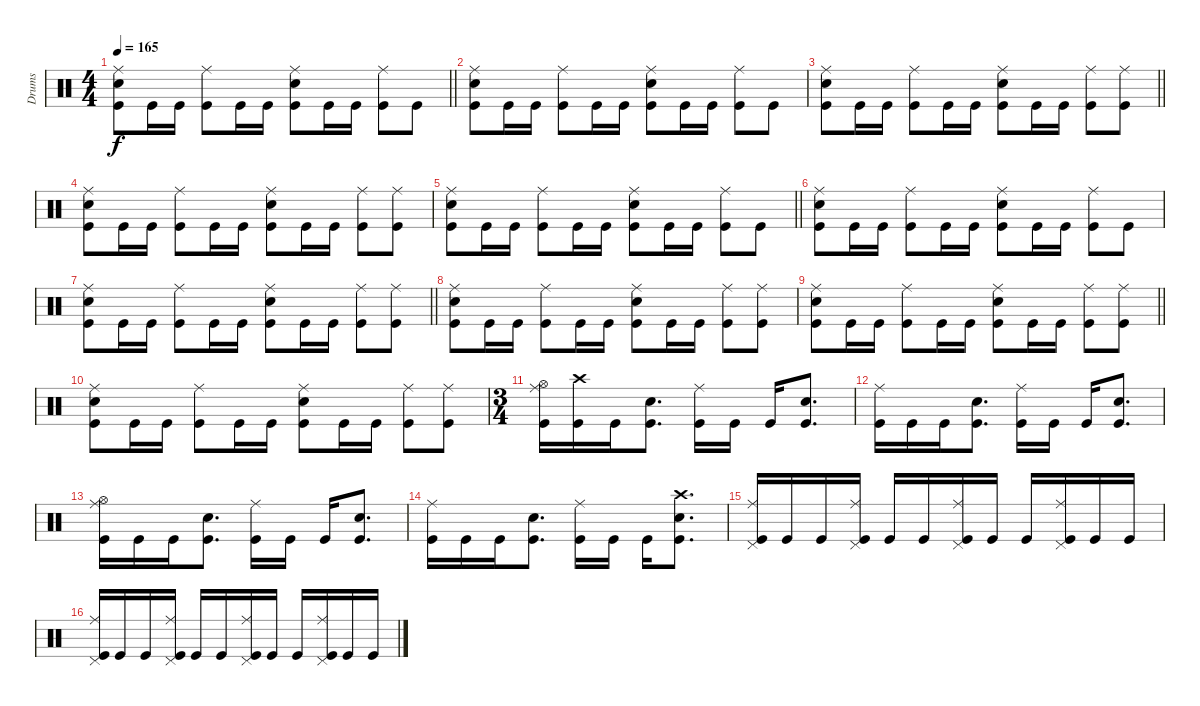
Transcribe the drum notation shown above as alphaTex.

\track ("Drums" "Drums") {instrument percussion}
\staff {score}
\articulation defaults
\ts (4 4)
\tempo 165
\clef neutral
\barLineRight lightlight
\ks c
("Ride (middle)" "Snare (hit) 2" "Kick (hit)").8{dy f} "Kick (hit)".16 "Kick (hit)".16 ("Ride (middle)" "Kick (hit)").8 "Kick (hit)".16 "Kick (hit)".16 ("Ride (middle)" "Snare (hit) 2" "Kick (hit)").8 "Kick (hit)".16 "Kick (hit)".16 ("Ride (middle)" "Kick (hit)").8 "Kick (hit)".8 |
("Ride (middle)" "Snare (hit) 2" "Kick (hit)").8 "Kick (hit)".16 "Kick (hit)".16 ("Ride (middle)" "Kick (hit)").8 "Kick (hit)".16 "Kick (hit)".16 ("Ride (middle)" "Snare (hit) 2" "Kick (hit)").8 "Kick (hit)".16 "Kick (hit)".16 ("Ride (middle)" "Kick (hit)").8 "Kick (hit)".8 |
\barLineRight lightlight
("Ride (middle)" "Snare (hit) 2" "Kick (hit)").8 "Kick (hit)".16 "Kick (hit)".16 ("Ride (middle)" "Kick (hit)").8 "Kick (hit)".16 "Kick (hit)".16 ("Ride (middle)" "Snare (hit) 2" "Kick (hit)").8 "Kick (hit)".16 "Kick (hit)".16 ("Ride (middle)" "Kick (hit)").8 ("Ride (middle)" "Kick (hit)").8 |
("Ride (middle)" "Snare (hit) 2" "Kick (hit)").8 "Kick (hit)".16 "Kick (hit)".16 ("Ride (middle)" "Kick (hit)").8 "Kick (hit)".16 "Kick (hit)".16 ("Ride (middle)" "Snare (hit) 2" "Kick (hit)").8 "Kick (hit)".16 "Kick (hit)".16 ("Ride (middle)" "Kick (hit)").8 ("Ride (middle)" "Kick (hit)").8 |
\barLineRight lightlight
("Ride (middle)" "Snare (hit) 2" "Kick (hit)").8 "Kick (hit)".16 "Kick (hit)".16 ("Ride (middle)" "Kick (hit)").8 "Kick (hit)".16 "Kick (hit)".16 ("Ride (middle)" "Snare (hit) 2" "Kick (hit)").8 "Kick (hit)".16 "Kick (hit)".16 ("Ride (middle)" "Kick (hit)").8 "Kick (hit)".8 |
("Ride (middle)" "Snare (hit) 2" "Kick (hit)").8 "Kick (hit)".16 "Kick (hit)".16 ("Ride (middle)" "Kick (hit)").8 "Kick (hit)".16 "Kick (hit)".16 ("Ride (middle)" "Snare (hit) 2" "Kick (hit)").8 "Kick (hit)".16 "Kick (hit)".16 ("Ride (middle)" "Kick (hit)").8 "Kick (hit)".8 |
\barLineRight lightlight
("Ride (middle)" "Snare (hit) 2" "Kick (hit)").8 "Kick (hit)".16 "Kick (hit)".16 ("Ride (middle)" "Kick (hit)").8 "Kick (hit)".16 "Kick (hit)".16 ("Ride (middle)" "Snare (hit) 2" "Kick (hit)").8 "Kick (hit)".16 "Kick (hit)".16 ("Ride (middle)" "Kick (hit)").8 ("Ride (middle)" "Kick (hit)").8 |
("Ride (middle)" "Snare (hit) 2" "Kick (hit)").8 "Kick (hit)".16 "Kick (hit)".16 ("Ride (middle)" "Kick (hit)").8 "Kick (hit)".16 "Kick (hit)".16 ("Ride (middle)" "Snare (hit) 2" "Kick (hit)").8 "Kick (hit)".16 "Kick (hit)".16 ("Ride (middle)" "Kick (hit)").8 ("Ride (middle)" "Kick (hit)").8 |
\barLineRight lightlight
("Ride (middle)" "Snare (hit) 2" "Kick (hit)").8 "Kick (hit)".16 "Kick (hit)".16 ("Ride (middle)" "Kick (hit)").8 "Kick (hit)".16 "Kick (hit)".16 ("Ride (middle)" "Snare (hit) 2" "Kick (hit)").8 "Kick (hit)".16 "Kick (hit)".16 ("Ride (middle)" "Kick (hit)").8 ("Ride (middle)" "Kick (hit)").8 |
("Ride (middle)" "Snare (hit) 2" "Kick (hit)").8 "Kick (hit)".16 "Kick (hit)".16 ("Ride (middle)" "Kick (hit)").8 "Kick (hit)".16 "Kick (hit)".16 ("Ride (middle)" "Snare (hit) 2" "Kick (hit)").8 "Kick (hit)".16 "Kick (hit)".16 ("Ride (middle)" "Kick (hit)").8 ("Ride (middle)" "Kick (hit)").8 |
\ts (3 4)
("Ride (middle)" "Hi-Hat (open)" "Kick (hit)").16 ("Crash high (hit)" "Kick (hit)").16 "Kick (hit)".16 ("Snare (hit) 2" "Kick (hit)").8{d} ("Ride (middle)" "Kick (hit)").16 "Kick (hit)".16 "Kick (hit)".16 ("Snare (hit) 2" "Kick (hit)").8{d} |
("Ride (middle)" "Kick (hit)").16 "Kick (hit)".16 "Kick (hit)".16 ("Snare (hit) 2" "Kick (hit)").8{d} ("Ride (middle)" "Kick (hit)").16 "Kick (hit)".16 "Kick (hit)".16 ("Snare (hit) 2" "Kick (hit)").8{d} |
("Hi-Hat (open)" "Ride (middle)" "Kick (hit)").16 "Kick (hit)".16 "Kick (hit)".16 ("Snare (hit) 2" "Kick (hit)").8{d} ("Ride (middle)" "Kick (hit)").16 "Kick (hit)".16 "Kick (hit)".16 ("Snare (hit) 2" "Kick (hit)").8{d} |
("Ride (middle)" "Kick (hit)").16 "Kick (hit)".16 "Kick (hit)".16 ("Snare (hit) 2" "Kick (hit)").8{d} ("Ride (middle)" "Kick (hit)").16 "Kick (hit)".16 "Kick (hit)".16 ("Crash high (hit)" "Snare (hit) 2" "Kick (hit)").8{d} |
("Pedal Hi-Hat (hit)" "Ride (middle)" "Kick (hit)").16 "Kick (hit)".16 "Kick (hit)".16 ("Pedal Hi-Hat (hit)" "Ride (middle)" "Kick (hit)").16 "Kick (hit)".16 "Kick (hit)".16 ("Pedal Hi-Hat (hit)" "Ride (middle)" "Kick (hit)").16 "Kick (hit)".16 "Kick (hit)".16 ("Pedal Hi-Hat (hit)" "Ride (middle)" "Kick (hit)").16 "Kick (hit)".16 "Kick (hit)".16 |
("Pedal Hi-Hat (hit)" "Ride (middle)" "Kick (hit)").16 "Kick (hit)".16 "Kick (hit)".16 ("Pedal Hi-Hat (hit)" "Ride (middle)" "Kick (hit)").16 "Kick (hit)".16 "Kick (hit)".16 ("Pedal Hi-Hat (hit)" "Ride (middle)" "Kick (hit)").16 "Kick (hit)".16 "Kick (hit)".16 ("Pedal Hi-Hat (hit)" "Ride (middle)" "Kick (hit)").16 "Kick (hit)".16 "Kick (hit)".16
